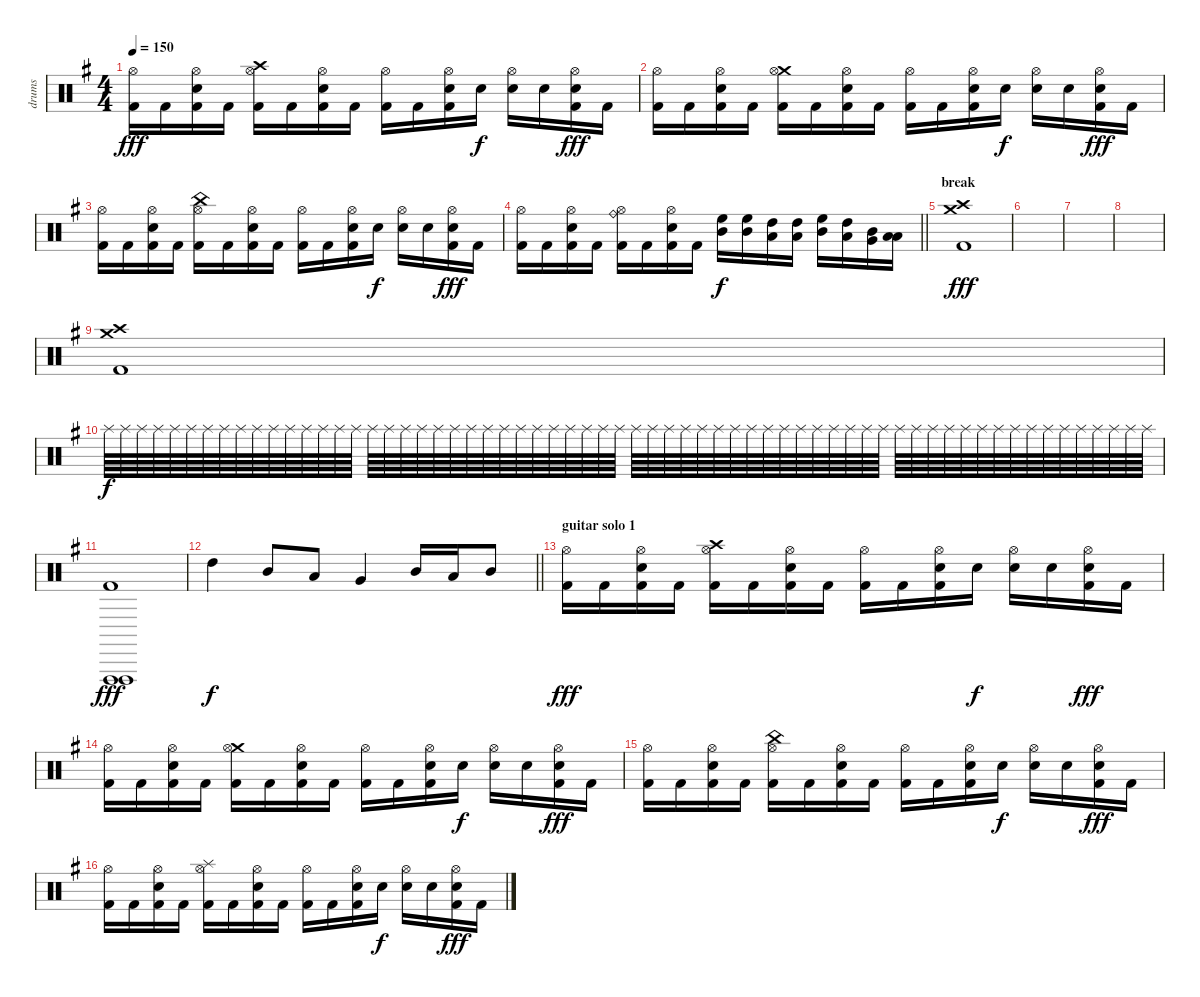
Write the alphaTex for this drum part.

\track ("drums" "drums") {instrument percussion}
\staff {score}
\articulation defaults
\ts (4 4)
\tempo 150
\clef neutral
\ks eminor
("Hi-Hat (open)" "Kick (hit) 2").16{dy fff} "Kick (hit) 2".16 ("Electric Snare (hit)" "Hi-Hat (open)" "Kick (hit) 2").16 "Kick (hit) 2".16 ("Crash high (hit)" "Hi-Hat (open)" "Kick (hit) 2").16 "Kick (hit) 2".16 ("Electric Snare (hit)" "Hi-Hat (open)" "Kick (hit) 2").16 "Kick (hit) 2".16 ("Hi-Hat (open)" "Kick (hit) 2").16 "Kick (hit) 2".16 ("Electric Snare (hit)" "Hi-Hat (open)" "Kick (hit) 2").16 "Electric Snare (hit)".16{dy f} ("Electric Snare (hit)" "Hi-Hat (open)").16 "Electric Snare (hit)".16 ("Electric Snare (hit)" "Hi-Hat (open)" "Kick (hit) 2").16{dy fff} "Kick (hit) 2".16 |
("Hi-Hat (open)" "Kick (hit) 2").16 "Kick (hit) 2".16 ("Electric Snare (hit)" "Hi-Hat (open)" "Kick (hit) 2").16 "Kick (hit) 2".16 ("Crash medium (hit)" "Hi-Hat (open)" "Kick (hit) 2").16 "Kick (hit) 2".16 ("Electric Snare (hit)" "Hi-Hat (open)" "Kick (hit) 2").16 "Kick (hit) 2".16 ("Hi-Hat (open)" "Kick (hit) 2").16 "Kick (hit) 2".16 ("Electric Snare (hit)" "Hi-Hat (open)" "Kick (hit) 2").16 "Electric Snare (hit)".16{dy f} ("Electric Snare (hit)" "Hi-Hat (open)").16 "Electric Snare (hit)".16 ("Electric Snare (hit)" "Hi-Hat (open)" "Kick (hit) 2").16{dy fff} "Kick (hit) 2".16 |
("Hi-Hat (open)" "Kick (hit) 2").16 "Kick (hit) 2".16 ("Electric Snare (hit)" "Hi-Hat (open)" "Kick (hit) 2").16 "Kick (hit) 2".16 ("China (hit)" "Hi-Hat (open)" "Kick (hit) 2").16 "Kick (hit) 2".16 ("Electric Snare (hit)" "Hi-Hat (open)" "Kick (hit) 2").16 "Kick (hit) 2".16 ("Hi-Hat (open)" "Kick (hit) 2").16 "Kick (hit) 2".16 ("Electric Snare (hit)" "Hi-Hat (open)" "Kick (hit) 2").16 "Electric Snare (hit)".16{dy f} ("Electric Snare (hit)" "Hi-Hat (open)").16 "Electric Snare (hit)".16 ("Electric Snare (hit)" "Hi-Hat (open)" "Kick (hit) 2").16{dy fff} "Kick (hit) 2".16 |
\barLineRight lightlight
("Hi-Hat (open)" "Kick (hit) 2").16 "Kick (hit) 2".16 ("Electric Snare (hit)" "Hi-Hat (open)" "Kick (hit) 2").16 "Kick (hit) 2".16 ("Ride (bell)" "Hi-Hat (open)" "Kick (hit) 2").16 "Kick (hit) 2".16 ("Electric Snare (hit)" "Hi-Hat (open)" "Kick (hit) 2").16 "Kick (hit) 2".16 ("High Floor Tom (hit)" "Mid Tom (hit)").16{dy f} ("High Floor Tom (hit)" "Mid Tom (hit)").16 ("High Tom (hit)" "Low Tom (hit)").16 ("High Tom (hit)" "Low Tom (hit)").16 ("High Floor Tom (hit)" "Mid Tom (hit)").16 ("High Tom (hit)" "Low Tom (hit)").16 ("Mid Tom (hit)" "Very Low Tom (hit)").16 ("Low Tom (hit)" "Low Floor Tom (hit)").16 |
\section ("" "break")
("Crash high (hit)" "Crash medium (hit)" "Kick (hit) 2").1{dy fff} |
|
|
|
("Crash high (hit)" "Crash medium (hit)" "Kick (hit) 2").1 |
"Splash (hit)".64{dy f volume 0} "Splash (hit)".64{volume 16} "Splash (hit)".64 "Splash (hit)".64 "Splash (hit)".64 "Splash (hit)".64 "Splash (hit)".64 "Splash (hit)".64 "Splash (hit)".64 "Splash (hit)".64 "Splash (hit)".64 "Splash (hit)".64 "Splash (hit)".64 "Splash (hit)".64 "Splash (hit)".64 "Splash (hit)".64 "Splash (hit)".64 "Splash (hit)".64 "Splash (hit)".64 "Splash (hit)".64 "Splash (hit)".64 "Splash (hit)".64 "Splash (hit)".64 "Splash (hit)".64 "Splash (hit)".64 "Splash (hit)".64 "Splash (hit)".64 "Splash (hit)".64 "Splash (hit)".64 "Splash (hit)".64 "Splash (hit)".64 "Splash (hit)".64 "Splash (hit)".64 "Splash (hit)".64 "Splash (hit)".64 "Splash (hit)".64 "Splash (hit)".64 "Splash (hit)".64 "Splash (hit)".64 "Splash (hit)".64 "Splash (hit)".64 "Splash (hit)".64 "Splash (hit)".64 "Splash (hit)".64 "Splash (hit)".64 "Splash (hit)".64 "Splash (hit)".64 "Splash (hit)".64 "Splash (hit)".64 "Splash (hit)".64 "Splash (hit)".64 "Splash (hit)".64 "Splash (hit)".64 "Splash (hit)".64 "Splash (hit)".64 "Splash (hit)".64 "Splash (hit)".64 "Splash (hit)".64 "Splash (hit)".64 "Splash (hit)".64 "Splash (hit)".64 "Splash (hit)".64 "Splash (hit)".64 "Splash (hit)".64 |
("Vibraslap (hit)" "Vibraslap (hit)" "Kick (hit) 2").1{dy fff} |
\barLineRight lightlight "High Tom (hit)".4{dy f} "Mid Tom (hit)".8 "Low Tom (hit)".8 "Very Low Tom (hit)".4 "Mid Tom (hit)".16 "Low Tom (hit)".16 "Mid Tom (hit)".8
|
\section ("" "guitar solo 1")
("Hi-Hat (open)" "Kick (hit) 2").16{dy fff} "Kick (hit) 2".16 ("Electric Snare (hit)" "Hi-Hat (open)" "Kick (hit) 2").16 "Kick (hit) 2".16 ("Crash high (hit)" "Hi-Hat (open)" "Kick (hit) 2").16 "Kick (hit) 2".16 ("Electric Snare (hit)" "Hi-Hat (open)" "Kick (hit) 2").16 "Kick (hit) 2".16 ("Hi-Hat (open)" "Kick (hit) 2").16 "Kick (hit) 2".16 ("Electric Snare (hit)" "Hi-Hat (open)" "Kick (hit) 2").16 "Electric Snare (hit)".16{dy f} ("Electric Snare (hit)" "Hi-Hat (open)").16 "Electric Snare (hit)".16 ("Electric Snare (hit)" "Hi-Hat (open)" "Kick (hit) 2").16{dy fff} "Kick (hit) 2".16 |
("Hi-Hat (open)" "Kick (hit) 2").16 "Kick (hit) 2".16 ("Electric Snare (hit)" "Hi-Hat (open)" "Kick (hit) 2").16 "Kick (hit) 2".16 ("Crash medium (hit)" "Hi-Hat (open)" "Kick (hit) 2").16 "Kick (hit) 2".16 ("Electric Snare (hit)" "Hi-Hat (open)" "Kick (hit) 2").16 "Kick (hit) 2".16 ("Hi-Hat (open)" "Kick (hit) 2").16 "Kick (hit) 2".16 ("Electric Snare (hit)" "Hi-Hat (open)" "Kick (hit) 2").16 "Electric Snare (hit)".16{dy f} ("Electric Snare (hit)" "Hi-Hat (open)").16 "Electric Snare (hit)".16 ("Electric Snare (hit)" "Hi-Hat (open)" "Kick (hit) 2").16{dy fff} "Kick (hit) 2".16 |
("Hi-Hat (open)" "Kick (hit) 2").16 "Kick (hit) 2".16 ("Electric Snare (hit)" "Hi-Hat (open)" "Kick (hit) 2").16 "Kick (hit) 2".16 ("China (hit)" "Hi-Hat (open)" "Kick (hit) 2").16 "Kick (hit) 2".16 ("Electric Snare (hit)" "Hi-Hat (open)" "Kick (hit) 2").16 "Kick (hit) 2".16 ("Hi-Hat (open)" "Kick (hit) 2").16 "Kick (hit) 2".16 ("Electric Snare (hit)" "Hi-Hat (open)" "Kick (hit) 2").16 "Electric Snare (hit)".16{dy f} ("Electric Snare (hit)" "Hi-Hat (open)").16 "Electric Snare (hit)".16 ("Electric Snare (hit)" "Hi-Hat (open)" "Kick (hit) 2").16{dy fff} "Kick (hit) 2".16 |
("Hi-Hat (open)" "Kick (hit) 2").16 "Kick (hit) 2".16 ("Electric Snare (hit)" "Hi-Hat (open)" "Kick (hit) 2").16 "Kick (hit) 2".16 ("Splash (hit)" "Hi-Hat (open)" "Kick (hit) 2").16 "Kick (hit) 2".16 ("Electric Snare (hit)" "Hi-Hat (open)" "Kick (hit) 2").16 "Kick (hit) 2".16 ("Hi-Hat (open)" "Kick (hit) 2").16 "Kick (hit) 2".16 ("Electric Snare (hit)" "Hi-Hat (open)" "Kick (hit) 2").16 "Electric Snare (hit)".16{dy f} ("Electric Snare (hit)" "Hi-Hat (open)").16 "Electric Snare (hit)".16 ("Electric Snare (hit)" "Hi-Hat (open)" "Kick (hit) 2").16{dy fff} "Kick (hit) 2".16
